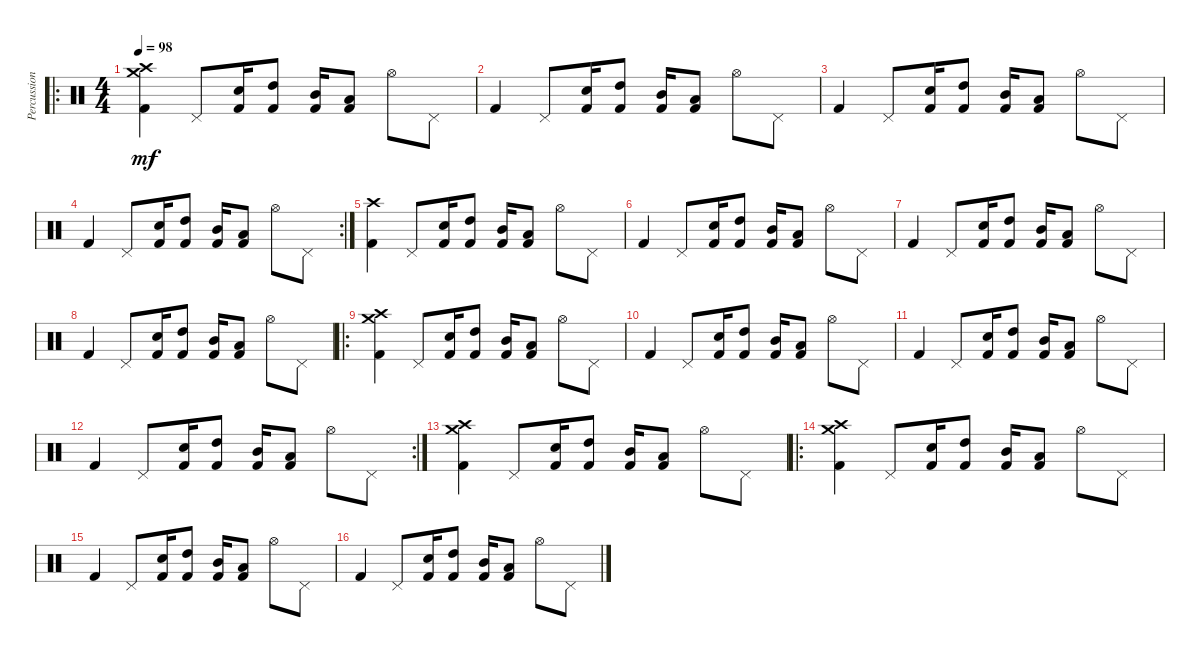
\track ("Percussion" "Percussion") {instrument percussion}
\staff {score}
\articulation defaults
\ro
\ts (4 4)
\tempo 98
\clef neutral
\ks c
("Crash high (hit)" "Crash medium (hit)" "Kick (hit) 2").4{dy mf volume 11} "Pedal Hi-Hat (hit)".8 ("Snare (hit) 2" "Kick (hit) 2").16 ("High Tom (hit)" "Kick (hit) 2").8 ("Mid Tom (hit)" "Kick (hit) 2").16 ("Low Tom (hit)" "Kick (hit) 2").8 "Hi-Hat (open)".8 "Pedal Hi-Hat (hit)".8 |
"Kick (hit) 2".4 "Pedal Hi-Hat (hit)".8 ("Snare (hit) 2" "Kick (hit) 2").16 ("High Tom (hit)" "Kick (hit) 2").8 ("Mid Tom (hit)" "Kick (hit) 2").16 ("Low Tom (hit)" "Kick (hit) 2").8 "Hi-Hat (open)".8 "Pedal Hi-Hat (hit)".8 |
"Kick (hit) 2".4 "Pedal Hi-Hat (hit)".8 ("Snare (hit) 2" "Kick (hit) 2").16 ("High Tom (hit)" "Kick (hit) 2").8 ("Mid Tom (hit)" "Kick (hit) 2").16 ("Low Tom (hit)" "Kick (hit) 2").8 "Hi-Hat (open)".8 "Pedal Hi-Hat (hit)".8 |
\rc 2 "Kick (hit) 2".4 "Pedal Hi-Hat (hit)".8
("Snare (hit) 2" "Kick (hit) 2").16 ("High Tom (hit)" "Kick (hit) 2").8 ("Mid Tom (hit)" "Kick (hit) 2").16 ("Low Tom (hit)" "Kick (hit) 2").8 "Hi-Hat (open)".8 "Pedal Hi-Hat (hit)".8 |
("Crash high (hit)" "Kick (hit) 2").4{volume 11} "Pedal Hi-Hat (hit)".8 ("Snare (hit) 2" "Kick (hit) 2").16 ("High Tom (hit)" "Kick (hit) 2").8 ("Mid Tom (hit)" "Kick (hit) 2").16 ("Low Tom (hit)" "Kick (hit) 2").8 "Hi-Hat (open)".8 "Pedal Hi-Hat (hit)".8 |
"Kick (hit) 2".4 "Pedal Hi-Hat (hit)".8 ("Snare (hit) 2" "Kick (hit) 2").16 ("High Tom (hit)" "Kick (hit) 2").8 ("Mid Tom (hit)" "Kick (hit) 2").16 ("Low Tom (hit)" "Kick (hit) 2").8 "Hi-Hat (open)".8 "Pedal Hi-Hat (hit)".8 |
"Kick (hit) 2".4 "Pedal Hi-Hat (hit)".8 ("Snare (hit) 2" "Kick (hit) 2").16 ("High Tom (hit)" "Kick (hit) 2").8 ("Mid Tom (hit)" "Kick (hit) 2").16 ("Low Tom (hit)" "Kick (hit) 2").8 "Hi-Hat (open)".8 "Pedal Hi-Hat (hit)".8 |
"Kick (hit) 2".4 "Pedal Hi-Hat (hit)".8 ("Snare (hit) 2" "Kick (hit) 2").16 ("High Tom (hit)" "Kick (hit) 2").8 ("Mid Tom (hit)" "Kick (hit) 2").16 ("Low Tom (hit)" "Kick (hit) 2").8 "Hi-Hat (open)".8 "Pedal Hi-Hat (hit)".8 |
\ro
("Crash high (hit)" "Crash medium (hit)" "Kick (hit) 2").4{volume 11} "Pedal Hi-Hat (hit)".8 ("Snare (hit) 2" "Kick (hit) 2").16 ("High Tom (hit)" "Kick (hit) 2").8 ("Mid Tom (hit)" "Kick (hit) 2").16 ("Low Tom (hit)" "Kick (hit) 2").8 "Hi-Hat (open)".8 "Pedal Hi-Hat (hit)".8 |
"Kick (hit) 2".4 "Pedal Hi-Hat (hit)".8 ("Snare (hit) 2" "Kick (hit) 2").16 ("High Tom (hit)" "Kick (hit) 2").8 ("Mid Tom (hit)" "Kick (hit) 2").16 ("Low Tom (hit)" "Kick (hit) 2").8 "Hi-Hat (open)".8 "Pedal Hi-Hat (hit)".8 |
"Kick (hit) 2".4 "Pedal Hi-Hat (hit)".8 ("Snare (hit) 2" "Kick (hit) 2").16 ("High Tom (hit)" "Kick (hit) 2").8 ("Mid Tom (hit)" "Kick (hit) 2").16 ("Low Tom (hit)" "Kick (hit) 2").8 "Hi-Hat (open)".8 "Pedal Hi-Hat (hit)".8 |
\rc 2 "Kick (hit) 2".4 "Pedal Hi-Hat (hit)".8
("Snare (hit) 2" "Kick (hit) 2").16 ("High Tom (hit)" "Kick (hit) 2").8 ("Mid Tom (hit)" "Kick (hit) 2").16 ("Low Tom (hit)" "Kick (hit) 2").8 "Hi-Hat (open)".8 "Pedal Hi-Hat (hit)".8 |
("Crash high (hit)" "Crash medium (hit)" "Kick (hit) 2").4{volume 11} "Pedal Hi-Hat (hit)".8 ("Snare (hit) 2" "Kick (hit) 2").16 ("High Tom (hit)" "Kick (hit) 2").8 ("Mid Tom (hit)" "Kick (hit) 2").16 ("Low Tom (hit)" "Kick (hit) 2").8 "Hi-Hat (open)".8 "Pedal Hi-Hat (hit)".8 |
\ro
("Crash high (hit)" "Crash medium (hit)" "Kick (hit) 2").4{volume 11} "Pedal Hi-Hat (hit)".8 ("Snare (hit) 2" "Kick (hit) 2").16 ("High Tom (hit)" "Kick (hit) 2").8 ("Mid Tom (hit)" "Kick (hit) 2").16 ("Low Tom (hit)" "Kick (hit) 2").8 "Hi-Hat (open)".8 "Pedal Hi-Hat (hit)".8 |
"Kick (hit) 2".4 "Pedal Hi-Hat (hit)".8 ("Snare (hit) 2" "Kick (hit) 2").16 ("High Tom (hit)" "Kick (hit) 2").8 ("Mid Tom (hit)" "Kick (hit) 2").16 ("Low Tom (hit)" "Kick (hit) 2").8 "Hi-Hat (open)".8 "Pedal Hi-Hat (hit)".8 |
"Kick (hit) 2".4 "Pedal Hi-Hat (hit)".8 ("Snare (hit) 2" "Kick (hit) 2").16 ("High Tom (hit)" "Kick (hit) 2").8 ("Mid Tom (hit)" "Kick (hit) 2").16 ("Low Tom (hit)" "Kick (hit) 2").8 "Hi-Hat (open)".8 "Pedal Hi-Hat (hit)".8
